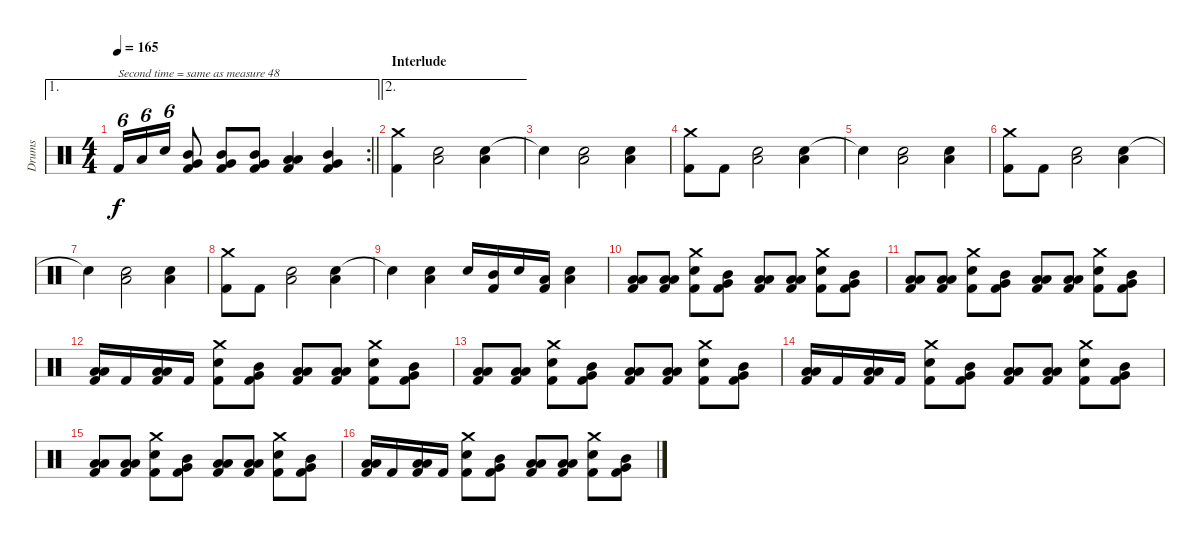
\track ("Drums" "Drums") {instrument percussion}
\staff {score}
\articulation defaults
\ae 1
\rc 2
\ts (4 4)
\tempo 165
\clef neutral
\barLineRight lightlight
\ks c "Kick (hit) 2".16{tu (6 4) txt "Second time = same as measure 48" dy f} "Low Floor Tom (hit)".16{tu (6 4)} "Snare (hit) 2".16{tu (6 4)}
("Mid Tom (hit)" "Very Low Tom (hit)" "Kick (hit) 2").8 ("Mid Tom (hit)" "Very Low Tom (hit)" "Kick (hit) 2").8 ("Mid Tom (hit)" "Very Low Tom (hit)" "Kick (hit) 2").8 ("Low Tom (hit)" "Low Floor Tom (hit)" "Kick (hit) 2").4 ("Mid Tom (hit)" "Very Low Tom (hit)" "Kick (hit) 2").4 |
\ae 2
\section ("" "Interlude")
("Crash medium (hit)" "Kick (hit) 2").4 ("Snare (hit) 2" "Low Floor Tom (hit)").2 ("Snare (hit) 2" "Low Floor Tom (hit)").4 |
"Snare (hit)"{t}.4 ("Snare (hit) 2" "Low Floor Tom (hit)").2 ("Snare (hit) 2" "Low Floor Tom (hit)").4 |
("Crash medium (hit)" "Kick (hit) 2").8 "Kick (hit) 2".8 ("Snare (hit) 2" "Low Floor Tom (hit)").2 ("Snare (hit) 2" "Low Floor Tom (hit)").4 |
"Snare (hit)"{t}.4 ("Snare (hit) 2" "Low Floor Tom (hit)").2 ("Snare (hit) 2" "Low Floor Tom (hit)").4 |
("Crash medium (hit)" "Kick (hit) 2").8 "Kick (hit) 2".8 ("Snare (hit) 2" "Low Floor Tom (hit)").2 ("Snare (hit) 2" "Low Floor Tom (hit)").4 |
"Snare (hit)"{t}.4 ("Snare (hit) 2" "Low Floor Tom (hit)").2 ("Snare (hit) 2" "Low Floor Tom (hit)").4 |
("Crash medium (hit)" "Kick (hit) 2").8 "Kick (hit) 2".8 ("Snare (hit) 2" "Low Floor Tom (hit)").2 ("Snare (hit) 2" "Low Floor Tom (hit)").4 |
"Snare (hit)"{t}.4 ("Snare (hit) 2" "Low Floor Tom (hit)").4 "Snare (hit) 2".16 ("Mid Tom (hit)" "Kick (hit) 2").16 "Snare (hit) 2".16 ("Low Tom (hit)" "Kick (hit) 2").16 ("Snare (hit) 2" "Low Floor Tom (hit)").4 |
("Low Tom (hit)" "Low Floor Tom (hit)" "Kick (hit) 2").8 ("Low Tom (hit)" "Low Floor Tom (hit)" "Kick (hit) 2").8 ("Crash medium (hit)" "Snare (hit) 2" "Kick (hit) 2").8 ("Mid Tom (hit)" "Very Low Tom (hit)" "Kick (hit) 2").8 ("Low Tom (hit)" "Low Floor Tom (hit)" "Kick (hit) 2").8 ("Low Tom (hit)" "Low Floor Tom (hit)" "Kick (hit) 2").8 ("Crash medium (hit)" "Snare (hit) 2" "Kick (hit) 2").8 ("Mid Tom (hit)" "Very Low Tom (hit)" "Kick (hit) 2").8 |
("Low Tom (hit)" "Low Floor Tom (hit)" "Kick (hit) 2").8 ("Low Tom (hit)" "Low Floor Tom (hit)" "Kick (hit) 2").8 ("Crash medium (hit)" "Snare (hit) 2" "Kick (hit) 2").8 ("Mid Tom (hit)" "Very Low Tom (hit)" "Kick (hit) 2").8 ("Low Tom (hit)" "Low Floor Tom (hit)" "Kick (hit) 2").8 ("Low Tom (hit)" "Low Floor Tom (hit)" "Kick (hit) 2").8 ("Crash medium (hit)" "Snare (hit) 2" "Kick (hit) 2").8 ("Mid Tom (hit)" "Very Low Tom (hit)" "Kick (hit) 2").8 |
("Low Tom (hit)" "Low Floor Tom (hit)" "Kick (hit) 2").16 "Kick (hit) 2".16 ("Low Tom (hit)" "Low Floor Tom (hit)" "Kick (hit) 2").16 "Kick (hit) 2".16 ("Crash medium (hit)" "Snare (hit) 2" "Kick (hit) 2").8 ("Mid Tom (hit)" "Very Low Tom (hit)" "Kick (hit) 2").8 ("Low Tom (hit)" "Low Floor Tom (hit)" "Kick (hit) 2").8 ("Low Tom (hit)" "Low Floor Tom (hit)" "Kick (hit) 2").8 ("Crash medium (hit)" "Snare (hit) 2" "Kick (hit) 2").8 ("Mid Tom (hit)" "Very Low Tom (hit)" "Kick (hit) 2").8 |
("Low Tom (hit)" "Low Floor Tom (hit)" "Kick (hit) 2").8 ("Low Tom (hit)" "Low Floor Tom (hit)" "Kick (hit) 2").8 ("Crash medium (hit)" "Snare (hit) 2" "Kick (hit) 2").8 ("Mid Tom (hit)" "Very Low Tom (hit)" "Kick (hit) 2").8 ("Low Tom (hit)" "Low Floor Tom (hit)" "Kick (hit) 2").8 ("Low Tom (hit)" "Low Floor Tom (hit)" "Kick (hit) 2").8 ("Crash medium (hit)" "Snare (hit) 2" "Kick (hit) 2").8 ("Mid Tom (hit)" "Very Low Tom (hit)" "Kick (hit) 2").8 |
("Low Tom (hit)" "Low Floor Tom (hit)" "Kick (hit) 2").16 "Kick (hit) 2".16 ("Low Tom (hit)" "Low Floor Tom (hit)" "Kick (hit) 2").16 "Kick (hit) 2".16 ("Crash medium (hit)" "Snare (hit) 2" "Kick (hit) 2").8 ("Mid Tom (hit)" "Very Low Tom (hit)" "Kick (hit) 2").8 ("Low Tom (hit)" "Low Floor Tom (hit)" "Kick (hit) 2").8 ("Low Tom (hit)" "Low Floor Tom (hit)" "Kick (hit) 2").8 ("Crash medium (hit)" "Snare (hit) 2" "Kick (hit) 2").8 ("Mid Tom (hit)" "Very Low Tom (hit)" "Kick (hit) 2").8 |
("Low Tom (hit)" "Low Floor Tom (hit)" "Kick (hit) 2").8 ("Low Tom (hit)" "Low Floor Tom (hit)" "Kick (hit) 2").8 ("Crash medium (hit)" "Snare (hit) 2" "Kick (hit) 2").8 ("Mid Tom (hit)" "Very Low Tom (hit)" "Kick (hit) 2").8 ("Low Tom (hit)" "Low Floor Tom (hit)" "Kick (hit) 2").8 ("Low Tom (hit)" "Low Floor Tom (hit)" "Kick (hit) 2").8 ("Crash medium (hit)" "Snare (hit) 2" "Kick (hit) 2").8 ("Mid Tom (hit)" "Very Low Tom (hit)" "Kick (hit) 2").8 |
("Low Tom (hit)" "Low Floor Tom (hit)" "Kick (hit) 2").16 "Kick (hit) 2".16 ("Low Tom (hit)" "Low Floor Tom (hit)" "Kick (hit) 2").16 "Kick (hit) 2".16 ("Crash medium (hit)" "Snare (hit) 2" "Kick (hit) 2").8 ("Mid Tom (hit)" "Very Low Tom (hit)" "Kick (hit) 2").8 ("Low Tom (hit)" "Low Floor Tom (hit)" "Kick (hit) 2").8 ("Low Tom (hit)" "Low Floor Tom (hit)" "Kick (hit) 2").8 ("Crash medium (hit)" "Snare (hit) 2" "Kick (hit) 2").8 ("Mid Tom (hit)" "Very Low Tom (hit)" "Kick (hit) 2").8
